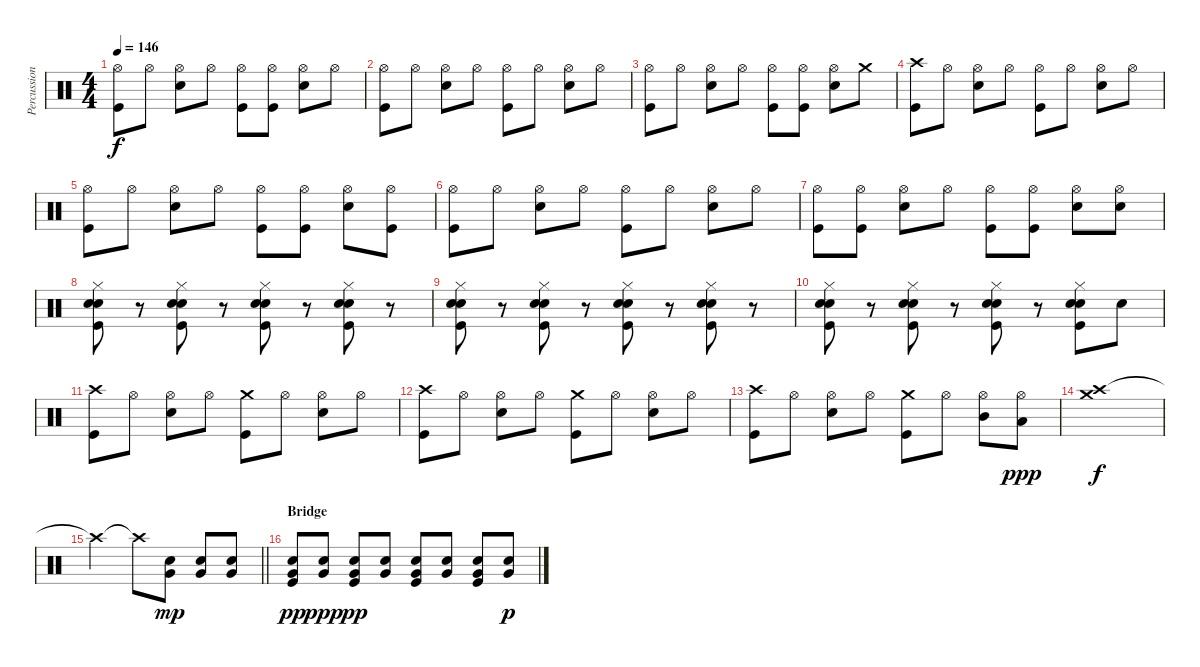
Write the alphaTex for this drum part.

\track ("Percussion" "Percussion") {instrument percussion}
\staff {score}
\articulation defaults
\ts (4 4)
\tempo 146
\clef neutral
\ks c
("Hi-Hat (open)" "Kick (hit)").8{dy f} "Hi-Hat (open)".8 ("Hi-Hat (open)" "Snare (hit) 2").8 "Hi-Hat (open)".8 ("Hi-Hat (open)" "Kick (hit)").8 ("Hi-Hat (open)" "Kick (hit)").8 ("Hi-Hat (open)" "Snare (hit) 2").8 "Hi-Hat (open)".8 |
("Hi-Hat (open)" "Kick (hit)").8 "Hi-Hat (open)".8 ("Hi-Hat (open)" "Snare (hit) 2").8 "Hi-Hat (open)".8 ("Hi-Hat (open)" "Kick (hit)").8 "Hi-Hat (open)".8 ("Hi-Hat (open)" "Snare (hit) 2").8 "Hi-Hat (open)".8 |
("Hi-Hat (open)" "Kick (hit)").8 "Hi-Hat (open)".8 ("Hi-Hat (open)" "Snare (hit) 2").8 "Hi-Hat (open)".8 ("Hi-Hat (open)" "Kick (hit)").8 ("Hi-Hat (open)" "Kick (hit)").8 ("Hi-Hat (open)" "Snare (hit) 2").8 "Crash medium (hit)".8 |
("Crash high (hit)" "Kick (hit)").8 "Hi-Hat (open)".8 ("Hi-Hat (open)" "Snare (hit) 2").8 "Hi-Hat (open)".8 ("Hi-Hat (open)" "Kick (hit)").8 "Hi-Hat (open)".8 ("Hi-Hat (open)" "Snare (hit) 2").8 "Hi-Hat (open)".8 |
("Hi-Hat (open)" "Kick (hit)").8 "Hi-Hat (open)".8 ("Hi-Hat (open)" "Snare (hit) 2").8 "Hi-Hat (open)".8 ("Hi-Hat (open)" "Kick (hit)").8 ("Hi-Hat (open)" "Kick (hit)").8 ("Hi-Hat (open)" "Snare (hit) 2").8 ("Hi-Hat (open)" "Kick (hit)").8 |
("Hi-Hat (open)" "Kick (hit)").8 "Hi-Hat (open)".8 ("Hi-Hat (open)" "Snare (hit) 2").8 "Hi-Hat (open)".8 ("Hi-Hat (open)" "Kick (hit)").8 "Hi-Hat (open)".8 ("Hi-Hat (open)" "Snare (hit) 2").8 "Hi-Hat (open)".8 |
("Hi-Hat (open)" "Kick (hit)").8 ("Hi-Hat (open)" "Kick (hit)").8 ("Hi-Hat (open)" "Snare (hit) 2").8 "Hi-Hat (open)".8 ("Hi-Hat (open)" "Kick (hit)").8 ("Hi-Hat (open)" "Kick (hit)").8 ("Hi-Hat (open)" "Snare (hit) 2").8 ("Hi-Hat (open)" "Snare (hit) 2").8 |
("Hi-Hat (closed)" "Snare (hit) 2" "Snare (hit) 2" "Kick (hit)").8 r.8 ("Hi-Hat (closed)" "Snare (hit) 2" "Snare (hit) 2" "Kick (hit)").8 r.8 ("Hi-Hat (closed)" "Snare (hit) 2" "Snare (hit) 2" "Kick (hit)").8 r.8 ("Hi-Hat (closed)" "Snare (hit) 2" "Snare (hit) 2" "Kick (hit)").8 r.8 |
("Hi-Hat (closed)" "Snare (hit) 2" "Snare (hit) 2" "Kick (hit)").8 r.8 ("Hi-Hat (closed)" "Snare (hit) 2" "Snare (hit) 2" "Kick (hit)").8 r.8 ("Hi-Hat (closed)" "Snare (hit) 2" "Snare (hit) 2" "Kick (hit)").8 r.8 ("Hi-Hat (closed)" "Snare (hit) 2" "Snare (hit) 2" "Kick (hit)").8 r.8 |
("Hi-Hat (closed)" "Snare (hit) 2" "Snare (hit) 2" "Kick (hit)").8 r.8 ("Hi-Hat (closed)" "Snare (hit) 2" "Snare (hit) 2" "Kick (hit)").8 r.8 ("Hi-Hat (closed)" "Snare (hit) 2" "Snare (hit) 2" "Kick (hit)").8 r.8 ("Hi-Hat (closed)" "Snare (hit) 2" "Snare (hit) 2" "Kick (hit)").8 "Snare (hit) 2".8 |
("Crash high (hit)" "Kick (hit)").8 "Hi-Hat (open)".8 ("Hi-Hat (open)" "Snare (hit) 2").8 "Hi-Hat (open)".8 ("Crash medium (hit)" "Kick (hit)").8 "Hi-Hat (open)".8 ("Hi-Hat (open)" "Snare (hit) 2").8 "Hi-Hat (open)".8 |
("Crash high (hit)" "Kick (hit)").8 "Hi-Hat (open)".8 ("Hi-Hat (open)" "Snare (hit) 2").8 "Hi-Hat (open)".8 ("Crash medium (hit)" "Kick (hit)").8 "Hi-Hat (open)".8 ("Hi-Hat (open)" "Snare (hit) 2").8 "Hi-Hat (open)".8 |
("Crash high (hit)" "Kick (hit)").8 "Hi-Hat (open)".8 ("Hi-Hat (open)" "Snare (hit) 2").8 "Hi-Hat (open)".8 ("Crash medium (hit)" "Kick (hit)").8 "Hi-Hat (open)".8 ("Hi-Hat (open)" "Mid Tom (hit)").8 ("Hi-Hat (open)" "Low Tom (hit)").8{dy ppp} |
("Crash high (hit)" "Crash medium (hit)").1{dy f} |
\barLineRight lightlight "Crash high (hit)"{t}.2 "Crash high (hit)"{t}.8
("Snare (hit) 2" "Very Low Tom (hit)").8{dy mp} ("Snare (hit) 2" "Very Low Tom (hit)").8 ("Snare (hit) 2" "Very Low Tom (hit)").8 |
\section ("" "Bridge")
("Snare (hit) 2" "Very Low Tom (hit)" "Kick (hit)").8{dy pp} ("Snare (hit) 2" "Very Low Tom (hit)").8{dy ppp} ("Snare (hit) 2" "Very Low Tom (hit)" "Kick (hit)").8{dy pp} ("Snare (hit) 2" "Very Low Tom (hit)").8 ("Snare (hit) 2" "Very Low Tom (hit)" "Kick (hit)").8 ("Snare (hit) 2" "Very Low Tom (hit)").8 ("Snare (hit) 2" "Very Low Tom (hit)" "Kick (hit)").8 ("Snare (hit) 2" "Very Low Tom (hit)").8{dy p}
